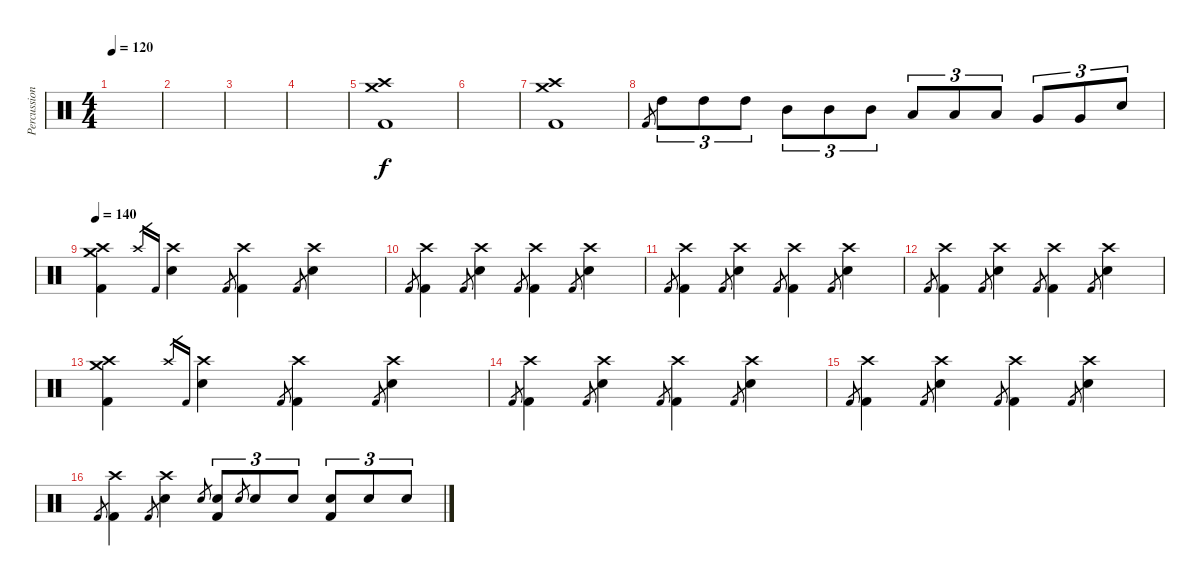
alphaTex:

\track ("Percussion" "Percussion") {instrument percussion}
\staff {score}
\articulation defaults
\ts (4 4)
\tempo 120
\tempo 140
\tempo 120
\clef neutral
\ks c
|
|
|
|
("Crash high (hit)" "Crash medium (hit)" "Kick (hit) 2").1 |
|
("Crash high (hit)" "Crash medium (hit)" "Kick (hit) 2").1 |
"Kick (hit) 2".8{gr} "High Tom (hit)".8{tu (3 2)} "High Tom (hit)".8{tu (3 2)} "High Tom (hit)".8{tu (3 2)} "Mid Tom (hit)".8{tu (3 2)} "Mid Tom (hit)".8{tu (3 2)} "Mid Tom (hit)".8{tu (3 2)} "Low Tom (hit)".8{tu (3 2)} "Low Tom (hit)".8{tu (3 2)} "Low Tom (hit)".8{tu (3 2)} "Very Low Tom (hit)".8{tu (3 2)} "Very Low Tom (hit)".8{tu (3 2)} "Electric Snare (hit)".8{tu (3 2)} |
\tempo 140
("Crash medium (hit)" "Crash high (hit)" "Kick (hit) 2").4 "Crash high (hit)".16{gr} "Kick (hit) 2".16{gr} ("Crash high (hit)" "Electric Snare (hit)").4 "Kick (hit) 2".8{gr} ("Crash high (hit)" "Kick (hit) 2").4 "Kick (hit) 2".8{gr} ("Crash high (hit)" "Electric Snare (hit)").4 |
"Kick (hit) 2".8{gr} ("Crash high (hit)" "Kick (hit) 2").4 "Kick (hit) 2".8{gr} ("Crash high (hit)" "Electric Snare (hit)").4 "Kick (hit) 2".8{gr} ("Crash high (hit)" "Kick (hit) 2").4 "Kick (hit) 2".8{gr} ("Crash high (hit)" "Electric Snare (hit)").4 |
"Kick (hit) 2".8{gr} ("Crash high (hit)" "Kick (hit) 2").4 "Kick (hit) 2".8{gr} ("Crash high (hit)" "Electric Snare (hit)").4 "Kick (hit) 2".8{gr} ("Crash high (hit)" "Kick (hit) 2").4 "Kick (hit) 2".8{gr} ("Crash high (hit)" "Electric Snare (hit)").4 |
"Kick (hit) 2".8{gr} ("Crash high (hit)" "Kick (hit) 2").4 "Kick (hit) 2".8{gr} ("Crash high (hit)" "Electric Snare (hit)").4 "Kick (hit) 2".8{gr} ("Crash high (hit)" "Kick (hit) 2").4 "Kick (hit) 2".8{gr} ("Crash high (hit)" "Electric Snare (hit)").4 |
("Crash medium (hit)" "Crash high (hit)" "Kick (hit) 2").4 "Crash high (hit)".16{gr} "Kick (hit) 2".16{gr} ("Crash high (hit)" "Electric Snare (hit)").4 "Kick (hit) 2".8{gr} ("Crash high (hit)" "Kick (hit) 2").4 "Kick (hit) 2".8{gr} ("Crash high (hit)" "Electric Snare (hit)").4 |
"Kick (hit) 2".8{gr} ("Crash high (hit)" "Kick (hit) 2").4 "Kick (hit) 2".8{gr} ("Crash high (hit)" "Electric Snare (hit)").4 "Kick (hit) 2".8{gr} ("Crash high (hit)" "Kick (hit) 2").4 "Kick (hit) 2".8{gr} ("Crash high (hit)" "Electric Snare (hit)").4 |
"Kick (hit) 2".8{gr} ("Crash high (hit)" "Kick (hit) 2").4 "Kick (hit) 2".8{gr} ("Crash high (hit)" "Electric Snare (hit)").4 "Kick (hit) 2".8{gr} ("Crash high (hit)" "Kick (hit) 2").4 "Kick (hit) 2".8{gr} ("Crash high (hit)" "Electric Snare (hit)").4 |
"Kick (hit) 2".8{gr} ("Crash high (hit)" "Kick (hit) 2").4 "Kick (hit) 2".8{gr} ("Crash high (hit)" "Electric Snare (hit)").4 "Electric Snare (hit)".8{gr} ("Electric Snare (hit)" "Kick (hit) 2").8{tu (3 2)} "Electric Snare (hit)".8{gr} "Electric Snare (hit)".8{tu (3 2)} "Electric Snare (hit)".8{tu (3 2)} ("Electric Snare (hit)" "Kick (hit) 2").8{tu (3 2)} "Electric Snare (hit)".8{tu (3 2)} "Electric Snare (hit)".8{tu (3 2)}
